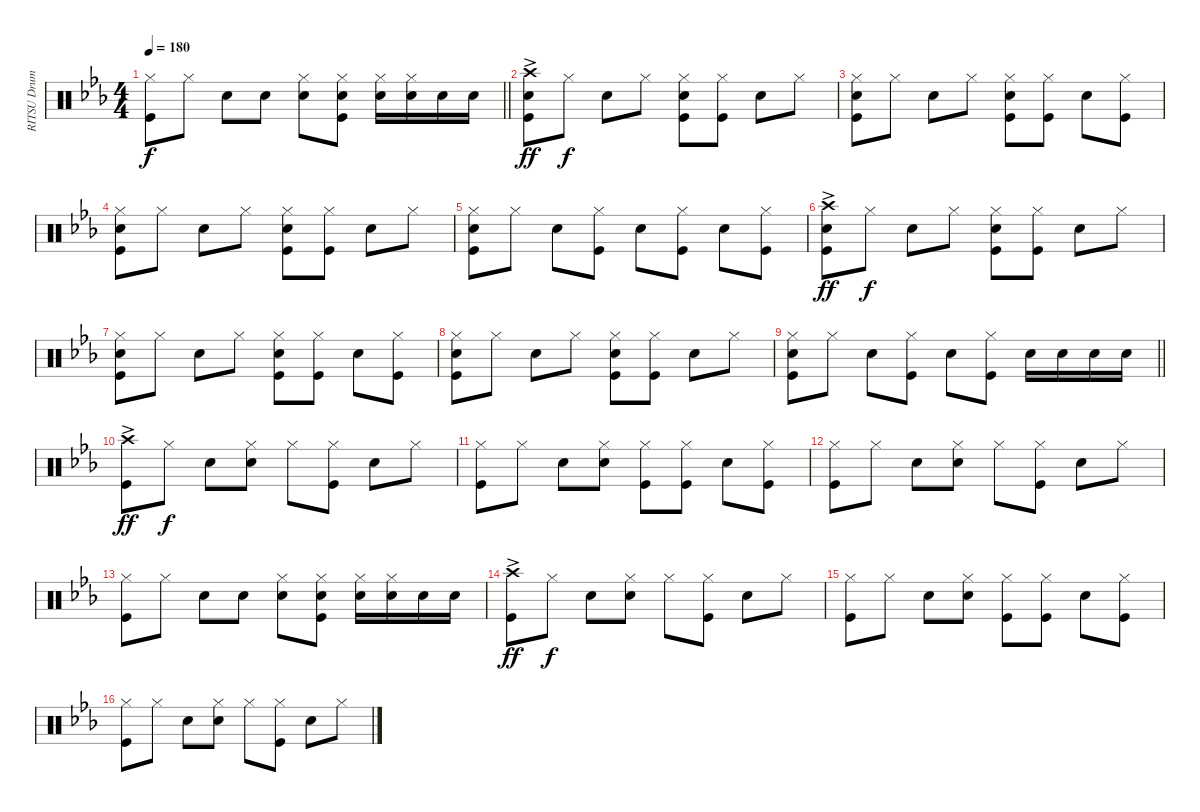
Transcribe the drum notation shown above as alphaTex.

\track ("RITSU Drums" "RITSU Drum") {instrument percussion}
\staff {score}
\articulation defaults
\ts (4 4)
\tempo 180
\clef neutral
\barLineRight lightlight
\ks cminor
("Hi-Hat (closed)" "Kick (hit)").8{dy f} "Hi-Hat (closed)".8 "Snare (hit) 2".8 "Snare (hit) 2".8 ("Hi-Hat (closed)" "Snare (hit) 2").8 ("Hi-Hat (closed)" "Snare (hit) 2" "Kick (hit)").8 ("Hi-Hat (closed)" "Snare (hit) 2").16 ("Hi-Hat (closed)" "Snare (hit) 2").16 "Snare (hit) 2".16 "Snare (hit) 2".16 |
("Crash high (hit)"{ac} "Kick (hit)" "Snare (hit) 2").8{dy ff} "Hi-Hat (closed)".8{dy f} "Snare (hit) 2".8 "Hi-Hat (closed)".8 ("Hi-Hat (closed)" "Snare (hit) 2" "Kick (hit)").8 ("Kick (hit)" "Hi-Hat (closed)").8 "Snare (hit) 2".8 "Hi-Hat (closed)".8 |
("Snare (hit) 2" "Kick (hit)" "Hi-Hat (closed)").8 "Hi-Hat (closed)".8 "Snare (hit) 2".8 "Hi-Hat (closed)".8 ("Hi-Hat (closed)" "Snare (hit) 2" "Kick (hit)").8 ("Kick (hit)" "Hi-Hat (closed)").8 "Snare (hit) 2".8 ("Kick (hit)" "Hi-Hat (closed)").8 |
("Hi-Hat (closed)" "Kick (hit)" "Snare (hit) 2").8 "Hi-Hat (closed)".8 "Snare (hit) 2".8 "Hi-Hat (closed)".8 ("Hi-Hat (closed)" "Kick (hit)" "Snare (hit) 2").8 ("Kick (hit)" "Hi-Hat (closed)").8 "Snare (hit) 2".8 "Hi-Hat (closed)".8 |
("Hi-Hat (closed)" "Snare (hit) 2" "Kick (hit)").8 "Hi-Hat (closed)".8 "Snare (hit) 2".8 ("Hi-Hat (closed)" "Kick (hit)").8 "Snare (hit) 2".8 ("Hi-Hat (closed)" "Kick (hit)").8 "Snare (hit) 2".8 ("Kick (hit)" "Hi-Hat (closed)").8 |
("Crash high (hit)"{ac} "Kick (hit)" "Snare (hit) 2").8{dy ff} "Hi-Hat (closed)".8{dy f} "Snare (hit) 2".8 "Hi-Hat (closed)".8 ("Snare (hit) 2" "Kick (hit)" "Hi-Hat (closed)").8 ("Hi-Hat (closed)" "Kick (hit)").8 "Snare (hit) 2".8 "Hi-Hat (closed)".8 |
("Hi-Hat (closed)" "Snare (hit) 2" "Kick (hit)").8 "Hi-Hat (closed)".8 "Snare (hit) 2".8 "Hi-Hat (closed)".8 ("Hi-Hat (closed)" "Kick (hit)" "Snare (hit) 2").8 ("Kick (hit)" "Hi-Hat (closed)").8 "Snare (hit) 2".8 ("Hi-Hat (closed)" "Kick (hit)").8 |
("Hi-Hat (closed)" "Kick (hit)" "Snare (hit) 2").8 "Hi-Hat (closed)".8 "Snare (hit) 2".8 "Hi-Hat (closed)".8 ("Hi-Hat (closed)" "Kick (hit)" "Snare (hit) 2").8 ("Hi-Hat (closed)" "Kick (hit)").8 "Snare (hit) 2".8 "Hi-Hat (closed)".8 |
\barLineRight lightlight
("Hi-Hat (closed)" "Kick (hit)" "Snare (hit) 2").8 "Hi-Hat (closed)".8 "Snare (hit) 2".8 ("Hi-Hat (closed)" "Kick (hit)").8 "Snare (hit) 2".8 ("Kick (hit)" "Hi-Hat (closed)").8 "Snare (hit) 2".16 "Snare (hit) 2".16 "Snare (hit) 2".16 "Snare (hit) 2".16 |
("Crash high (hit)"{ac} "Kick (hit)").8{dy ff} "Hi-Hat (closed)".8{dy f} "Snare (hit) 2".8 ("Snare (hit) 2" "Hi-Hat (closed)").8 "Hi-Hat (closed)".8 ("Kick (hit)" "Hi-Hat (closed)").8 "Snare (hit) 2".8 "Hi-Hat (closed)".8 |
("Hi-Hat (closed)" "Kick (hit)").8 "Hi-Hat (closed)".8 "Snare (hit) 2".8 ("Snare (hit) 2" "Hi-Hat (closed)").8 ("Hi-Hat (closed)" "Kick (hit)").8 ("Kick (hit)" "Hi-Hat (closed)").8 "Snare (hit) 2".8 ("Kick (hit)" "Hi-Hat (closed)").8 |
("Hi-Hat (closed)" "Kick (hit)").8 "Hi-Hat (closed)".8 "Snare (hit) 2".8 ("Snare (hit) 2" "Hi-Hat (closed)").8 "Hi-Hat (closed)".8 ("Hi-Hat (closed)" "Kick (hit)").8 "Snare (hit) 2".8 "Hi-Hat (closed)".8 |
("Hi-Hat (closed)" "Kick (hit)").8 "Hi-Hat (closed)".8 "Snare (hit) 2".8 "Snare (hit) 2".8 ("Snare (hit) 2" "Hi-Hat (closed)").8 ("Snare (hit) 2" "Kick (hit)" "Hi-Hat (closed)").8 ("Hi-Hat (closed)" "Snare (hit) 2").16 ("Snare (hit) 2" "Hi-Hat (closed)").16 "Snare (hit) 2".16 "Snare (hit) 2".16 |
("Crash high (hit)"{ac} "Kick (hit)").8{dy ff} "Hi-Hat (closed)".8{dy f} "Snare (hit) 2".8 ("Snare (hit) 2" "Hi-Hat (closed)").8 "Hi-Hat (closed)".8 ("Hi-Hat (closed)" "Kick (hit)").8 "Snare (hit) 2".8 "Hi-Hat (closed)".8 |
("Hi-Hat (closed)" "Kick (hit)").8 "Hi-Hat (closed)".8 "Snare (hit) 2".8 ("Snare (hit) 2" "Hi-Hat (closed)").8 ("Hi-Hat (closed)" "Kick (hit)").8 ("Kick (hit)" "Hi-Hat (closed)").8 "Snare (hit) 2".8 ("Kick (hit)" "Hi-Hat (closed)").8 |
("Hi-Hat (closed)" "Kick (hit)").8 "Hi-Hat (closed)".8 "Snare (hit) 2".8 ("Snare (hit) 2" "Hi-Hat (closed)").8 "Hi-Hat (closed)".8 ("Hi-Hat (closed)" "Kick (hit)").8 "Snare (hit) 2".8 "Hi-Hat (closed)".8
